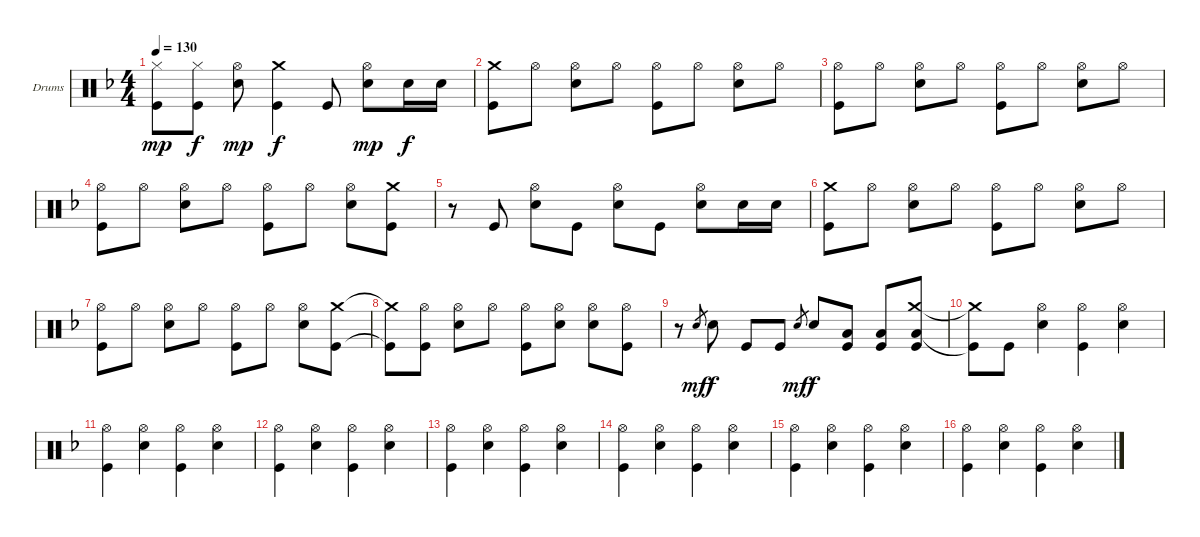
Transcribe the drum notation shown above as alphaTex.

\bracketExtendMode groupsimilarinstruments
\firstSystemTrackNameOrientation horizontal
\otherSystemsTrackNameOrientation horizontal
\track ("Александр Манякин" "Drums") {instrument percussion}
\staff {score}
\articulation defaults
\ts (4 4)
\tempo 130
\clef neutral
\ks f
("Hi-Hat (closed)" "Kick (hit)").8{dy mp} ("Hi-Hat (closed)" "Kick (hit)").8{dy f} ("Hi-Hat (open)" "Snare (hit) 2").8{dy mp} ("Crash medium (hit)" "Kick (hit)").4{dy f} "Kick (hit)".8 ("Hi-Hat (open)" "Snare (hit) 2").8{dy mp} "Snare (hit) 2".16{dy f} "Snare (hit) 2".16 |
("Crash medium (hit)" "Kick (hit)").8 "Hi-Hat (open)".8 ("Hi-Hat (open)" "Snare (hit) 2").8 "Hi-Hat (open)".8 ("Hi-Hat (open)" "Kick (hit)").8 "Hi-Hat (open)".8 ("Hi-Hat (open)" "Snare (hit) 2").8 "Hi-Hat (open)".8 |
("Hi-Hat (open)" "Kick (hit)").8 "Hi-Hat (open)".8 ("Hi-Hat (open)" "Snare (hit) 2").8 "Hi-Hat (open)".8 ("Hi-Hat (open)" "Kick (hit)").8 "Hi-Hat (open)".8 ("Hi-Hat (open)" "Snare (hit) 2").8 "Hi-Hat (open)".8 |
("Hi-Hat (open)" "Kick (hit)").8 "Hi-Hat (open)".8 ("Hi-Hat (open)" "Snare (hit) 2").8 "Hi-Hat (open)".8 ("Hi-Hat (open)" "Kick (hit)").8 "Hi-Hat (open)".8 ("Hi-Hat (open)" "Snare (hit) 2").8 ("Crash medium (hit)" "Kick (hit)").8 |
r.8 "Kick (hit)".8 ("Hi-Hat (open)" "Snare (hit) 2").8 "Kick (hit)".8 ("Hi-Hat (open)" "Snare (hit) 2").8 "Kick (hit)".8 ("Hi-Hat (open)" "Snare (hit) 2").8 "Snare (hit) 2".16 "Snare (hit) 2".16 |
("Crash medium (hit)" "Kick (hit)").8 "Hi-Hat (open)".8 ("Hi-Hat (open)" "Snare (hit) 2").8 "Hi-Hat (open)".8 ("Hi-Hat (open)" "Kick (hit)").8 "Hi-Hat (open)".8 ("Hi-Hat (open)" "Snare (hit) 2").8 "Hi-Hat (open)".8 |
("Hi-Hat (open)" "Kick (hit)").8 "Hi-Hat (open)".8 ("Hi-Hat (open)" "Snare (hit) 2").8 "Hi-Hat (open)".8 ("Hi-Hat (open)" "Kick (hit)").8 "Hi-Hat (open)".8 ("Hi-Hat (open)" "Snare (hit) 2").8 ("Crash medium (hit)" "Kick (hit)").8 |
("Crash medium (hit)"{t} "Kick (hit)"{t}).8 ("Hi-Hat (open)" "Kick (hit)").8 ("Hi-Hat (open)" "Snare (hit) 2").8 "Hi-Hat (open)".8 ("Hi-Hat (open)" "Kick (hit)").8 ("Hi-Hat (open)" "Snare (hit) 2").8 ("Hi-Hat (open)" "Snare (hit) 2").8 ("Hi-Hat (open)" "Kick (hit)").8 |
r.8 "Snare (hit) 2".8{gr dy mf} "Snare (hit) 2".8{dy f} "Kick (hit)".8 "Kick (hit)".8 "Snare (hit) 2".8{gr dy mf} "Snare (hit) 2".8{dy f} ("Low Tom (hit)" "Kick (hit)").8 ("Low Tom (hit)" "Kick (hit)").8 ("Crash medium (hit)" "Low Tom (hit)" "Kick (hit)").8 |
("Crash medium (hit)"{t} "Kick (hit)"{t}).8 "Kick (hit)".8 ("Hi-Hat (open)" "Snare (hit) 2").4 ("Hi-Hat (open)" "Kick (hit)").4 ("Hi-Hat (open)" "Snare (hit) 2").4 |
("Hi-Hat (open)" "Kick (hit)").4 ("Hi-Hat (open)" "Snare (hit) 2").4 ("Hi-Hat (open)" "Kick (hit)").4 ("Hi-Hat (open)" "Snare (hit) 2").4 |
("Hi-Hat (open)" "Kick (hit)").4 ("Hi-Hat (open)" "Snare (hit) 2").4 ("Hi-Hat (open)" "Kick (hit)").4 ("Hi-Hat (open)" "Snare (hit) 2").4 |
("Hi-Hat (open)" "Kick (hit)").4 ("Hi-Hat (open)" "Snare (hit) 2").4 ("Hi-Hat (open)" "Kick (hit)").4 ("Hi-Hat (open)" "Snare (hit) 2").4 |
("Hi-Hat (open)" "Kick (hit)").4 ("Hi-Hat (open)" "Snare (hit) 2").4 ("Hi-Hat (open)" "Kick (hit)").4 ("Hi-Hat (open)" "Snare (hit) 2").4 |
("Hi-Hat (open)" "Kick (hit)").4 ("Hi-Hat (open)" "Snare (hit) 2").4 ("Hi-Hat (open)" "Kick (hit)").4 ("Hi-Hat (open)" "Snare (hit) 2").4 |
("Hi-Hat (open)" "Kick (hit)").4 ("Hi-Hat (open)" "Snare (hit) 2").4 ("Hi-Hat (open)" "Kick (hit)").4 ("Hi-Hat (open)" "Snare (hit) 2").4
